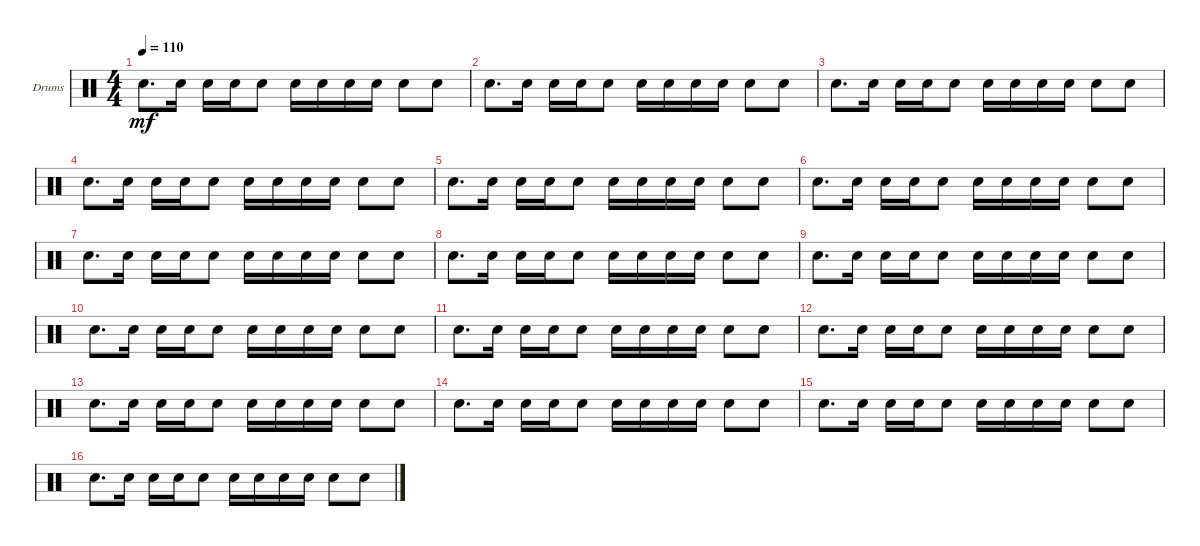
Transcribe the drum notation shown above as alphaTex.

\defaultSystemsLayout 4
\bracketExtendMode groupsimilarinstruments
\firstSystemTrackNameOrientation horizontal
\otherSystemsTrackNameOrientation horizontal
\track ("Drumkit" "Drums") {instrument percussion}
\staff {score}
\articulation defaults
\ts (4 4)
\tempo 110
\clef neutral
\ks c "Snare (hit) 2".8{d dy mf} "Snare (hit) 2".16 "Snare (hit) 2".16 "Snare (hit) 2".16 "Snare (hit) 2".8 "Snare (hit) 2".16 "Snare (hit) 2".16 "Snare (hit) 2".16 "Snare (hit) 2".16 "Snare (hit) 2".8 "Snare (hit) 2".8
|
"Snare (hit) 2".8{d} "Snare (hit) 2".16 "Snare (hit) 2".16 "Snare (hit) 2".16 "Snare (hit) 2".8 "Snare (hit) 2".16 "Snare (hit) 2".16 "Snare (hit) 2".16 "Snare (hit) 2".16 "Snare (hit) 2".8 "Snare (hit) 2".8 |
"Snare (hit) 2".8{d} "Snare (hit) 2".16 "Snare (hit) 2".16 "Snare (hit) 2".16 "Snare (hit) 2".8 "Snare (hit) 2".16 "Snare (hit) 2".16 "Snare (hit) 2".16 "Snare (hit) 2".16 "Snare (hit) 2".8 "Snare (hit) 2".8 |
"Snare (hit) 2".8{d} "Snare (hit) 2".16 "Snare (hit) 2".16 "Snare (hit) 2".16 "Snare (hit) 2".8 "Snare (hit) 2".16 "Snare (hit) 2".16 "Snare (hit) 2".16 "Snare (hit) 2".16 "Snare (hit) 2".8 "Snare (hit) 2".8 |
"Snare (hit) 2".8{d} "Snare (hit) 2".16 "Snare (hit) 2".16 "Snare (hit) 2".16 "Snare (hit) 2".8 "Snare (hit) 2".16 "Snare (hit) 2".16 "Snare (hit) 2".16 "Snare (hit) 2".16 "Snare (hit) 2".8 "Snare (hit) 2".8 |
"Snare (hit) 2".8{d} "Snare (hit) 2".16 "Snare (hit) 2".16 "Snare (hit) 2".16 "Snare (hit) 2".8 "Snare (hit) 2".16 "Snare (hit) 2".16 "Snare (hit) 2".16 "Snare (hit) 2".16 "Snare (hit) 2".8 "Snare (hit) 2".8 |
"Snare (hit) 2".8{d} "Snare (hit) 2".16 "Snare (hit) 2".16 "Snare (hit) 2".16 "Snare (hit) 2".8 "Snare (hit) 2".16 "Snare (hit) 2".16 "Snare (hit) 2".16 "Snare (hit) 2".16 "Snare (hit) 2".8 "Snare (hit) 2".8 |
"Snare (hit) 2".8{d} "Snare (hit) 2".16 "Snare (hit) 2".16 "Snare (hit) 2".16 "Snare (hit) 2".8 "Snare (hit) 2".16 "Snare (hit) 2".16 "Snare (hit) 2".16 "Snare (hit) 2".16 "Snare (hit) 2".8 "Snare (hit) 2".8 |
"Snare (hit) 2".8{d} "Snare (hit) 2".16 "Snare (hit) 2".16 "Snare (hit) 2".16 "Snare (hit) 2".8 "Snare (hit) 2".16 "Snare (hit) 2".16 "Snare (hit) 2".16 "Snare (hit) 2".16 "Snare (hit) 2".8 "Snare (hit) 2".8 |
"Snare (hit) 2".8{d} "Snare (hit) 2".16 "Snare (hit) 2".16 "Snare (hit) 2".16 "Snare (hit) 2".8 "Snare (hit) 2".16 "Snare (hit) 2".16 "Snare (hit) 2".16 "Snare (hit) 2".16 "Snare (hit) 2".8 "Snare (hit) 2".8 |
"Snare (hit) 2".8{d} "Snare (hit) 2".16 "Snare (hit) 2".16 "Snare (hit) 2".16 "Snare (hit) 2".8 "Snare (hit) 2".16 "Snare (hit) 2".16 "Snare (hit) 2".16 "Snare (hit) 2".16 "Snare (hit) 2".8 "Snare (hit) 2".8 |
"Snare (hit) 2".8{d} "Snare (hit) 2".16 "Snare (hit) 2".16 "Snare (hit) 2".16 "Snare (hit) 2".8 "Snare (hit) 2".16 "Snare (hit) 2".16 "Snare (hit) 2".16 "Snare (hit) 2".16 "Snare (hit) 2".8 "Snare (hit) 2".8 |
"Snare (hit) 2".8{d} "Snare (hit) 2".16 "Snare (hit) 2".16 "Snare (hit) 2".16 "Snare (hit) 2".8 "Snare (hit) 2".16 "Snare (hit) 2".16 "Snare (hit) 2".16 "Snare (hit) 2".16 "Snare (hit) 2".8 "Snare (hit) 2".8 |
"Snare (hit) 2".8{d} "Snare (hit) 2".16 "Snare (hit) 2".16 "Snare (hit) 2".16 "Snare (hit) 2".8 "Snare (hit) 2".16 "Snare (hit) 2".16 "Snare (hit) 2".16 "Snare (hit) 2".16 "Snare (hit) 2".8 "Snare (hit) 2".8 |
"Snare (hit) 2".8{d} "Snare (hit) 2".16 "Snare (hit) 2".16 "Snare (hit) 2".16 "Snare (hit) 2".8 "Snare (hit) 2".16 "Snare (hit) 2".16 "Snare (hit) 2".16 "Snare (hit) 2".16 "Snare (hit) 2".8 "Snare (hit) 2".8 |
"Snare (hit) 2".8{d} "Snare (hit) 2".16 "Snare (hit) 2".16 "Snare (hit) 2".16 "Snare (hit) 2".8 "Snare (hit) 2".16 "Snare (hit) 2".16 "Snare (hit) 2".16 "Snare (hit) 2".16 "Snare (hit) 2".8 "Snare (hit) 2".8
